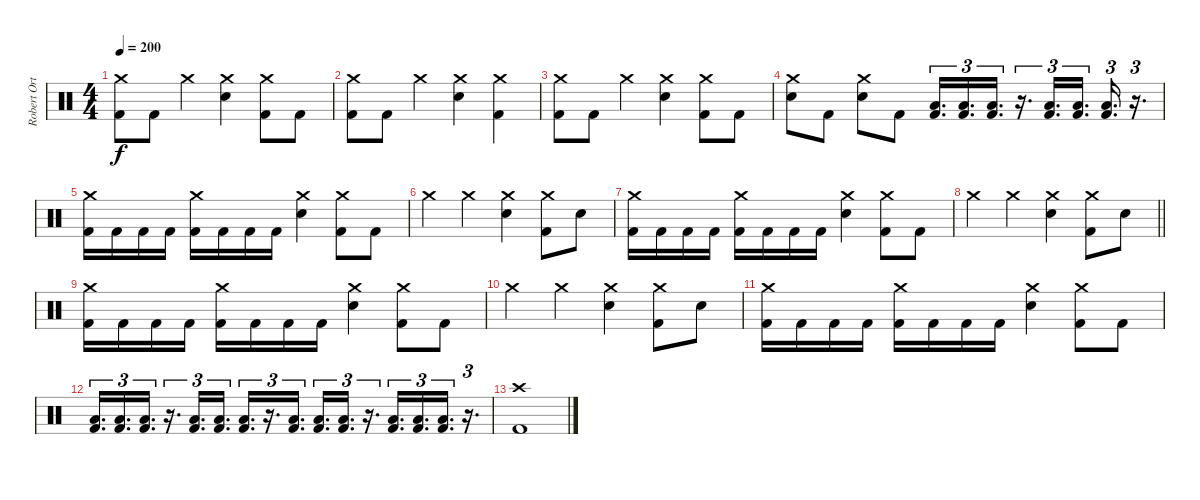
\track ("Robert Ortiz - Drums" "Robert Ort") {instrument percussion}
\staff {score}
\articulation defaults
\ts (4 4)
\tempo 200
\clef neutral
\ks c
("Crash medium (hit)" "Kick (hit) 2").8{dy f} "Kick (hit) 2".8 "Crash medium (hit)".4 ("Crash medium (hit)" "Electric Snare (hit)").4 ("Crash medium (hit)" "Kick (hit) 2").8 "Kick (hit) 2".8 |
("Crash medium (hit)" "Kick (hit) 2").8 "Kick (hit) 2".8 "Crash medium (hit)".4 ("Crash medium (hit)" "Electric Snare (hit)").4 ("Crash medium (hit)" "Kick (hit) 2").4 |
("Crash medium (hit)" "Kick (hit) 2").8 "Kick (hit) 2".8 "Crash medium (hit)".4 ("Crash medium (hit)" "Electric Snare (hit)").4 ("Crash medium (hit)" "Kick (hit) 2").8 "Kick (hit) 2".8 |
("Crash medium (hit)" "Electric Snare (hit)").8 "Kick (hit) 2".8 ("Crash medium (hit)" "Electric Snare (hit)").8 "Kick (hit) 2".8 ("Low Floor Tom (hit)" "Kick (hit) 2").16{d tu (3 2)} ("Low Floor Tom (hit)" "Kick (hit) 2").16{d tu (3 2)} ("Low Floor Tom (hit)" "Kick (hit) 2").16{d tu (3 2)} r.16{d tu (3 2)} ("Low Floor Tom (hit)" "Kick (hit) 2").16{d tu (3 2)} ("Low Floor Tom (hit)" "Kick (hit) 2").16{d tu (3 2)} ("Low Floor Tom (hit)" "Kick (hit) 2").16{d tu (3 2)} r.16{d tu (3 2)} |
("Crash medium (hit)" "Kick (hit) 2").16 "Kick (hit) 2".16 "Kick (hit) 2".16 "Kick (hit) 2".16 ("Crash medium (hit)" "Kick (hit) 2").16 "Kick (hit) 2".16 "Kick (hit) 2".16 "Kick (hit) 2".16 ("Crash medium (hit)" "Electric Snare (hit)").4 ("Crash medium (hit)" "Kick (hit) 2").8 "Kick (hit) 2".8 |
"Crash medium (hit)".4 "Crash medium (hit)".4 ("Crash medium (hit)" "Electric Snare (hit)").4 ("Crash medium (hit)" "Kick (hit) 2").8 "Electric Snare (hit)".8 |
("Crash medium (hit)" "Kick (hit) 2").16 "Kick (hit) 2".16 "Kick (hit) 2".16 "Kick (hit) 2".16 ("Crash medium (hit)" "Kick (hit) 2").16 "Kick (hit) 2".16 "Kick (hit) 2".16 "Kick (hit) 2".16 ("Crash medium (hit)" "Electric Snare (hit)").4 ("Crash medium (hit)" "Kick (hit) 2").8 "Kick (hit) 2".8 |
\barLineRight lightlight "Crash medium (hit)".4 "Crash medium (hit)".4
("Crash medium (hit)" "Electric Snare (hit)").4 ("Crash medium (hit)" "Kick (hit) 2").8 "Electric Snare (hit)".8 |
("Crash medium (hit)" "Kick (hit) 2").16 "Kick (hit) 2".16 "Kick (hit) 2".16 "Kick (hit) 2".16 ("Crash medium (hit)" "Kick (hit) 2").16 "Kick (hit) 2".16 "Kick (hit) 2".16 "Kick (hit) 2".16 ("Crash medium (hit)" "Electric Snare (hit)").4 ("Crash medium (hit)" "Kick (hit) 2").8 "Kick (hit) 2".8 |
"Crash medium (hit)".4 "Crash medium (hit)".4 ("Crash medium (hit)" "Electric Snare (hit)").4 ("Crash medium (hit)" "Kick (hit) 2").8 "Electric Snare (hit)".8 |
("Crash medium (hit)" "Kick (hit) 2").16 "Kick (hit) 2".16 "Kick (hit) 2".16 "Kick (hit) 2".16 ("Crash medium (hit)" "Kick (hit) 2").16 "Kick (hit) 2".16 "Kick (hit) 2".16 "Kick (hit) 2".16 ("Crash medium (hit)" "Electric Snare (hit)").4 ("Crash medium (hit)" "Kick (hit) 2").8 "Kick (hit) 2".8 |
("Low Floor Tom (hit)" "Kick (hit) 2").16{d tu (3 2)} ("Low Floor Tom (hit)" "Kick (hit) 2").16{d tu (3 2)} ("Low Floor Tom (hit)" "Kick (hit) 2").16{d tu (3 2)} r.16{d tu (3 2)} ("Low Floor Tom (hit)" "Kick (hit) 2").16{d tu (3 2)} ("Low Floor Tom (hit)" "Kick (hit) 2").16{d tu (3 2)} ("Low Floor Tom (hit)" "Kick (hit) 2").16{d tu (3 2)} r.16{d tu (3 2)} ("Low Floor Tom (hit)" "Kick (hit) 2").16{d tu (3 2)} ("Low Floor Tom (hit)" "Kick (hit) 2").16{d tu (3 2)} ("Low Floor Tom (hit)" "Kick (hit) 2").16{d tu (3 2)} r.16{d tu (3 2)} ("Low Floor Tom (hit)" "Kick (hit) 2").16{d tu (3 2)} ("Low Floor Tom (hit)" "Kick (hit) 2").16{d tu (3 2)} ("Low Floor Tom (hit)" "Kick (hit) 2").16{d tu (3 2)} r.16{d tu (3 2)} |
("Crash high (hit)" "Kick (hit) 2").1
